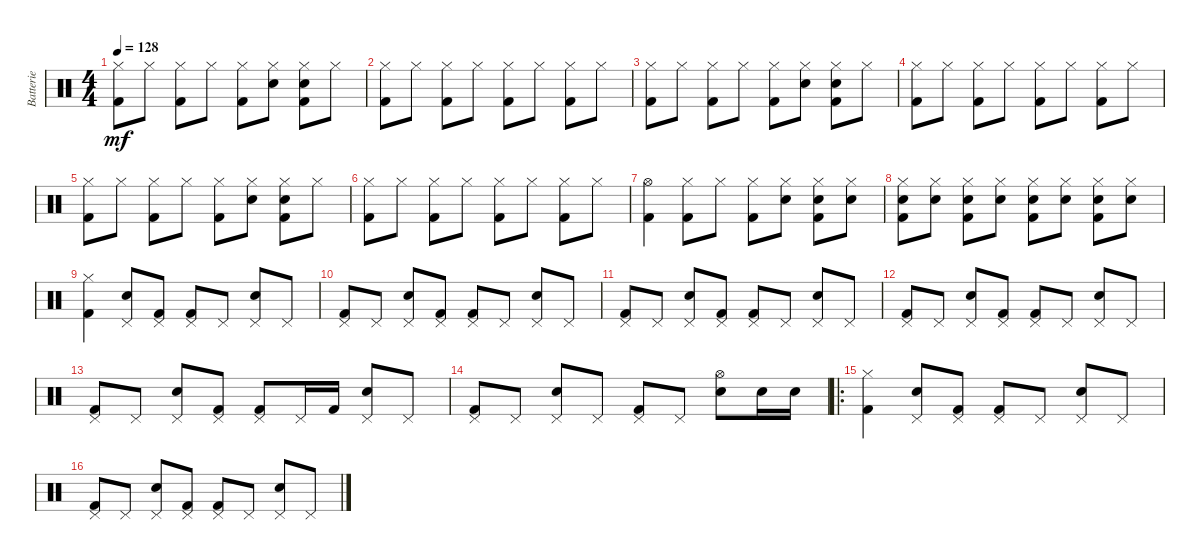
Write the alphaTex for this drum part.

\track ("Batterie" "Batterie") {instrument percussion}
\staff {score}
\articulation defaults
\ts (4 4)
\tempo 128
\clef neutral
\ks c
("Hi-Hat (closed)" "Kick (hit) 2").8{dy mf} "Hi-Hat (closed)".8 ("Hi-Hat (closed)" "Kick (hit) 2").8 "Hi-Hat (closed)".8 ("Hi-Hat (closed)" "Kick (hit) 2").8 ("Hi-Hat (closed)" "Snare (hit) 2").8 ("Hi-Hat (closed)" "Snare (hit) 2" "Kick (hit) 2").8 "Hi-Hat (closed)".8 |
("Hi-Hat (closed)" "Kick (hit) 2").8 "Hi-Hat (closed)".8 ("Hi-Hat (closed)" "Kick (hit) 2").8 "Hi-Hat (closed)".8 ("Hi-Hat (closed)" "Kick (hit) 2").8 "Hi-Hat (closed)".8 ("Hi-Hat (closed)" "Kick (hit) 2").8 "Hi-Hat (closed)".8 |
("Hi-Hat (closed)" "Kick (hit) 2").8 "Hi-Hat (closed)".8 ("Hi-Hat (closed)" "Kick (hit) 2").8 "Hi-Hat (closed)".8 ("Hi-Hat (closed)" "Kick (hit) 2").8 ("Hi-Hat (closed)" "Snare (hit) 2").8 ("Hi-Hat (closed)" "Snare (hit) 2" "Kick (hit) 2").8 "Hi-Hat (closed)".8 |
("Hi-Hat (closed)" "Kick (hit) 2").8 "Hi-Hat (closed)".8 ("Hi-Hat (closed)" "Kick (hit) 2").8 "Hi-Hat (closed)".8 ("Hi-Hat (closed)" "Kick (hit) 2").8 "Hi-Hat (closed)".8 ("Hi-Hat (closed)" "Kick (hit) 2").8 "Hi-Hat (closed)".8 |
("Hi-Hat (closed)" "Kick (hit) 2").8 "Hi-Hat (closed)".8 ("Hi-Hat (closed)" "Kick (hit) 2").8 "Hi-Hat (closed)".8 ("Hi-Hat (closed)" "Kick (hit) 2").8 ("Hi-Hat (closed)" "Snare (hit) 2").8 ("Hi-Hat (closed)" "Snare (hit) 2" "Kick (hit) 2").8 "Hi-Hat (closed)".8 |
("Hi-Hat (closed)" "Kick (hit) 2").8 "Hi-Hat (closed)".8 ("Hi-Hat (closed)" "Kick (hit) 2").8 "Hi-Hat (closed)".8 ("Hi-Hat (closed)" "Kick (hit) 2").8 "Hi-Hat (closed)".8 ("Hi-Hat (closed)" "Kick (hit) 2").8 "Hi-Hat (closed)".8 |
("Hi-Hat (open)" "Kick (hit) 2").4 ("Hi-Hat (closed)" "Kick (hit) 2").8 "Hi-Hat (closed)".8 ("Hi-Hat (closed)" "Kick (hit) 2").8 ("Hi-Hat (closed)" "Snare (hit) 2").8 ("Hi-Hat (closed)" "Snare (hit) 2" "Kick (hit) 2").8 ("Hi-Hat (closed)" "Snare (hit) 2").8 |
("Hi-Hat (closed)" "Snare (hit) 2" "Kick (hit) 2").8 ("Hi-Hat (closed)" "Snare (hit) 2").8 ("Hi-Hat (closed)" "Snare (hit) 2" "Kick (hit) 2").8 ("Hi-Hat (closed)" "Snare (hit) 2").8 ("Hi-Hat (closed)" "Snare (hit) 2" "Kick (hit) 2").8 ("Hi-Hat (closed)" "Snare (hit) 2").8 ("Hi-Hat (closed)" "Snare (hit) 2" "Kick (hit) 2").8 ("Hi-Hat (closed)" "Snare (hit) 2").8 |
("Hi-Hat (closed)" "Kick (hit) 2").4 ("Pedal Hi-Hat (hit)" "Snare (hit) 2").8 ("Pedal Hi-Hat (hit)" "Kick (hit) 2").8 ("Pedal Hi-Hat (hit)" "Kick (hit) 2").8 "Pedal Hi-Hat (hit)".8 ("Pedal Hi-Hat (hit)" "Snare (hit) 2").8 "Pedal Hi-Hat (hit)".8 |
("Pedal Hi-Hat (hit)" "Kick (hit) 2").8 "Pedal Hi-Hat (hit)".8 ("Pedal Hi-Hat (hit)" "Snare (hit) 2").8 ("Pedal Hi-Hat (hit)" "Kick (hit) 2").8 ("Pedal Hi-Hat (hit)" "Kick (hit) 2").8 "Pedal Hi-Hat (hit)".8 ("Pedal Hi-Hat (hit)" "Snare (hit) 2").8 "Pedal Hi-Hat (hit)".8 |
("Pedal Hi-Hat (hit)" "Kick (hit) 2").8 "Pedal Hi-Hat (hit)".8 ("Pedal Hi-Hat (hit)" "Snare (hit) 2").8 ("Pedal Hi-Hat (hit)" "Kick (hit) 2").8 ("Pedal Hi-Hat (hit)" "Kick (hit) 2").8 "Pedal Hi-Hat (hit)".8 ("Pedal Hi-Hat (hit)" "Snare (hit) 2").8 "Pedal Hi-Hat (hit)".8 |
("Pedal Hi-Hat (hit)" "Kick (hit) 2").8 "Pedal Hi-Hat (hit)".8 ("Pedal Hi-Hat (hit)" "Snare (hit) 2").8 ("Pedal Hi-Hat (hit)" "Kick (hit) 2").8 ("Pedal Hi-Hat (hit)" "Kick (hit) 2").8 "Pedal Hi-Hat (hit)".8 ("Pedal Hi-Hat (hit)" "Snare (hit) 2").8 "Pedal Hi-Hat (hit)".8 |
("Pedal Hi-Hat (hit)" "Kick (hit) 2").8 "Pedal Hi-Hat (hit)".8 ("Pedal Hi-Hat (hit)" "Snare (hit) 2").8 ("Pedal Hi-Hat (hit)" "Kick (hit) 2").8 ("Pedal Hi-Hat (hit)" "Kick (hit) 2").8 "Pedal Hi-Hat (hit)".16 "Kick (hit) 2".16 ("Pedal Hi-Hat (hit)" "Snare (hit) 2").8 "Pedal Hi-Hat (hit)".8 |
("Pedal Hi-Hat (hit)" "Kick (hit) 2").8 "Pedal Hi-Hat (hit)".8 ("Pedal Hi-Hat (hit)" "Snare (hit) 2").8 "Pedal Hi-Hat (hit)".8 ("Pedal Hi-Hat (hit)" "Kick (hit) 2").8 "Pedal Hi-Hat (hit)".8 ("Hi-Hat (open)" "Snare (hit) 2").8 "Snare (hit) 2".16 "Snare (hit) 2".16 |
\ro
("Hi-Hat (closed)" "Kick (hit) 2").4 ("Pedal Hi-Hat (hit)" "Snare (hit) 2").8 ("Pedal Hi-Hat (hit)" "Kick (hit) 2").8 ("Pedal Hi-Hat (hit)" "Kick (hit) 2").8 "Pedal Hi-Hat (hit)".8 ("Pedal Hi-Hat (hit)" "Snare (hit) 2").8 "Pedal Hi-Hat (hit)".8 |
("Pedal Hi-Hat (hit)" "Kick (hit) 2").8 "Pedal Hi-Hat (hit)".8 ("Pedal Hi-Hat (hit)" "Snare (hit) 2").8 ("Pedal Hi-Hat (hit)" "Kick (hit) 2").8 ("Pedal Hi-Hat (hit)" "Kick (hit) 2").8 "Pedal Hi-Hat (hit)".8 ("Pedal Hi-Hat (hit)" "Snare (hit) 2").8 "Pedal Hi-Hat (hit)".8
